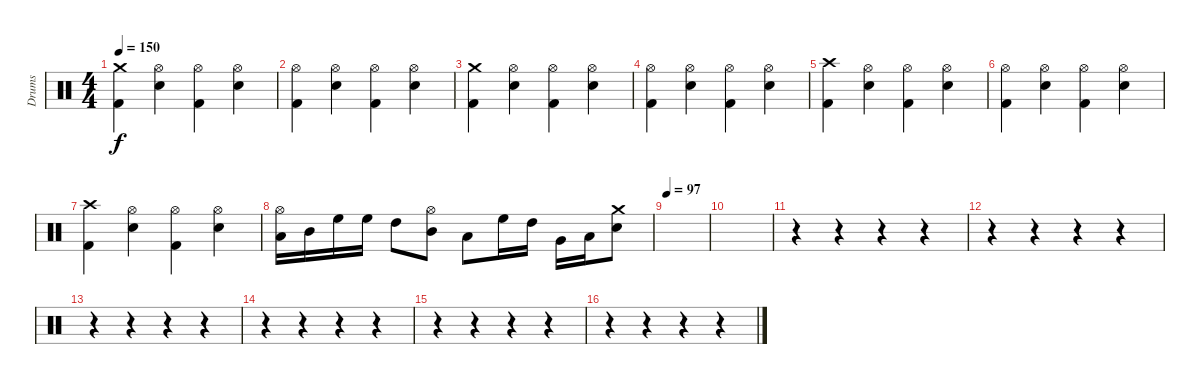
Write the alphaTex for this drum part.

\track ("Drums" "Drums") {instrument percussion}
\staff {score}
\articulation defaults
\ts (4 4)
\tempo 150
\clef neutral
\ks c
("Crash medium (hit)" "Kick (hit) 2").4{dy f} ("Hi-Hat (open)" "Snare (hit) 2").4 ("Hi-Hat (open)" "Kick (hit) 2").4 ("Hi-Hat (open)" "Snare (hit) 2").4 |
("Hi-Hat (open)" "Kick (hit) 2").4 ("Hi-Hat (open)" "Snare (hit) 2").4 ("Hi-Hat (open)" "Kick (hit) 2").4 ("Hi-Hat (open)" "Snare (hit) 2").4 |
("Crash medium (hit)" "Kick (hit) 2").4 ("Hi-Hat (open)" "Snare (hit) 2").4 ("Hi-Hat (open)" "Kick (hit) 2").4 ("Hi-Hat (open)" "Snare (hit) 2").4 |
("Hi-Hat (open)" "Kick (hit) 2").4 ("Hi-Hat (open)" "Snare (hit) 2").4 ("Hi-Hat (open)" "Kick (hit) 2").4 ("Hi-Hat (open)" "Snare (hit) 2").4 |
("Crash high (hit)" "Kick (hit) 2").4 ("Hi-Hat (open)" "Snare (hit) 2").4 ("Hi-Hat (open)" "Kick (hit) 2").4 ("Hi-Hat (open)" "Snare (hit) 2").4 |
("Hi-Hat (open)" "Kick (hit) 2").4 ("Hi-Hat (open)" "Snare (hit) 2").4 ("Hi-Hat (open)" "Kick (hit) 2").4 ("Hi-Hat (open)" "Snare (hit) 2").4 |
("Crash high (hit)" "Kick (hit) 2").4 ("Hi-Hat (open)" "Snare (hit) 2").4 ("Hi-Hat (open)" "Kick (hit) 2").4 ("Hi-Hat (open)" "Snare (hit) 2").4 |
("Hi-Hat (open)" "Low Tom (hit)").16 "Mid Tom (hit)".16 "High Floor Tom (hit)".16 "High Floor Tom (hit)".16 "High Tom (hit)".8 ("Hi-Hat (open)" "Mid Tom (hit)").8 "Low Tom (hit)".8 "High Floor Tom (hit)".16 "High Tom (hit)".16 "Very Low Tom (hit)".16 "Low Tom (hit)".16 ("Crash medium (hit)" "Snare (hit) 2").8 |
\tempo 97
|
|
r.4 r.4 r.4 r.4 |
r.4 r.4 r.4 r.4 |
r.4 r.4 r.4 r.4 |
r.4 r.4 r.4 r.4 |
r.4 r.4 r.4 r.4 |
r.4 r.4 r.4 r.4
